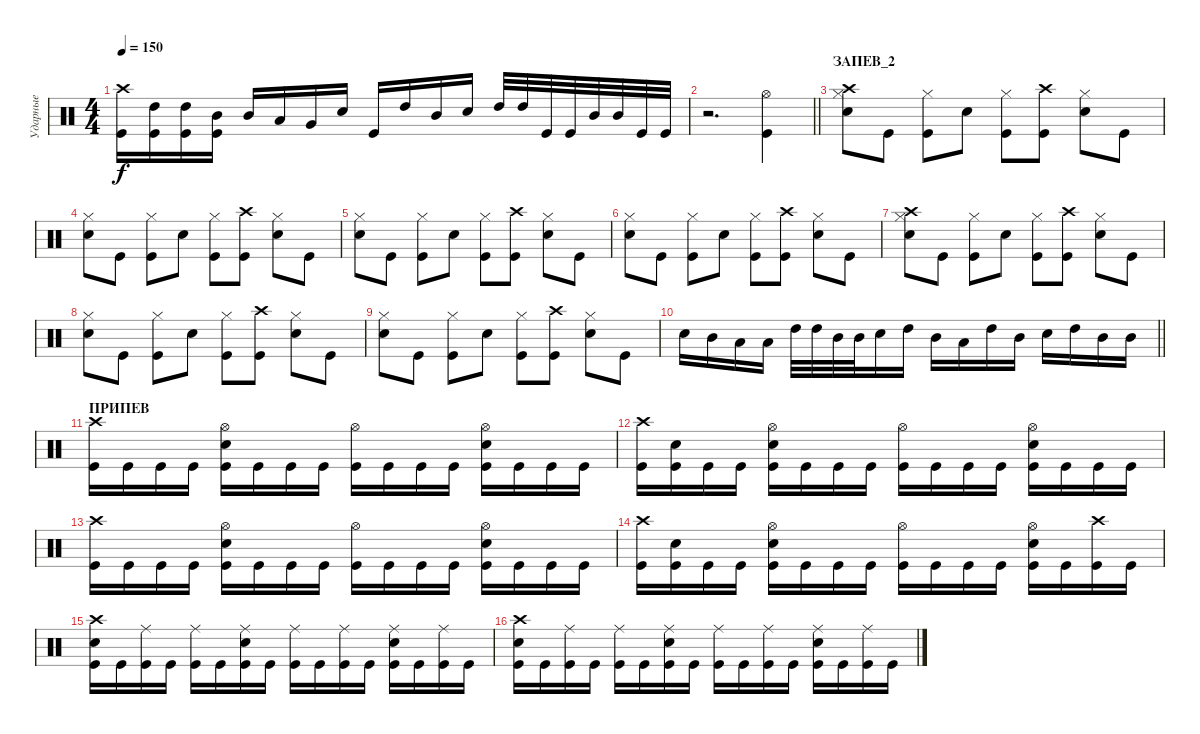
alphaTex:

\track ("Ударные" "Ударные") {instrument percussion}
\staff {score}
\articulation defaults
\ts (4 4)
\tempo 150
\clef neutral
\ks c
("Kick (hit)" "Crash high (hit)").16{dy f} ("Kick (hit)" "High Tom (hit)").16 ("Kick (hit)" "High Tom (hit)").16 ("Kick (hit)" "Mid Tom (hit)").16 "Mid Tom (hit)".16 "Low Tom (hit)".16 "Very Low Tom (hit)".16 "Snare (hit) 2".16 "Kick (hit)".16 "High Tom (hit)".16 "Mid Tom (hit)".16 "Snare (hit) 2".16 "High Tom (hit)".32 "High Tom (hit)".32 "Kick (hit)".32 "Kick (hit)".32 "Mid Tom (hit)".32 "Mid Tom (hit)".32 "Kick (hit)".32 "Kick (hit)".32 |
\barLineRight lightlight
r.2{d} ("Hi-Hat (open)" "Kick (hit)").4 |
\section ("" "ЗАПЕВ_2")
("Snare (hit) 2" "Hi-Hat (closed)" "Crash high (hit)").8 "Kick (hit)".8 ("Kick (hit)" "Hi-Hat (closed)").8 "Snare (hit) 2".8 ("Kick (hit)" "Hi-Hat (closed)").8 ("Kick (hit)" "Crash high (hit)").8 ("Snare (hit) 2" "Hi-Hat (closed)").8 "Kick (hit)".8 |
("Snare (hit) 2" "Hi-Hat (closed)").8 "Kick (hit)".8 ("Kick (hit)" "Hi-Hat (closed)").8 "Snare (hit) 2".8 ("Kick (hit)" "Hi-Hat (closed)").8 ("Kick (hit)" "Crash high (hit)").8 ("Snare (hit) 2" "Hi-Hat (closed)").8 "Kick (hit)".8 |
("Snare (hit) 2" "Hi-Hat (closed)").8 "Kick (hit)".8 ("Kick (hit)" "Hi-Hat (closed)").8 "Snare (hit) 2".8 ("Kick (hit)" "Hi-Hat (closed)").8 ("Kick (hit)" "Crash high (hit)").8 ("Snare (hit) 2" "Hi-Hat (closed)").8 "Kick (hit)".8 |
("Snare (hit) 2" "Hi-Hat (closed)").8 "Kick (hit)".8 ("Kick (hit)" "Hi-Hat (closed)").8 "Snare (hit) 2".8 ("Kick (hit)" "Hi-Hat (closed)").8 ("Kick (hit)" "Crash high (hit)").8 ("Snare (hit) 2" "Hi-Hat (closed)").8 "Kick (hit)".8 |
("Snare (hit) 2" "Hi-Hat (closed)" "Crash high (hit)").8 "Kick (hit)".8 ("Kick (hit)" "Hi-Hat (closed)").8 "Snare (hit) 2".8 ("Kick (hit)" "Hi-Hat (closed)").8 ("Kick (hit)" "Crash high (hit)").8 ("Snare (hit) 2" "Hi-Hat (closed)").8 "Kick (hit)".8 |
("Snare (hit) 2" "Hi-Hat (closed)").8 "Kick (hit)".8 ("Kick (hit)" "Hi-Hat (closed)").8 "Snare (hit) 2".8 ("Kick (hit)" "Hi-Hat (closed)").8 ("Kick (hit)" "Crash high (hit)").8 ("Snare (hit) 2" "Hi-Hat (closed)").8 "Kick (hit)".8 |
("Snare (hit) 2" "Hi-Hat (closed)").8 "Kick (hit)".8 ("Kick (hit)" "Hi-Hat (closed)").8 "Snare (hit) 2".8 ("Kick (hit)" "Hi-Hat (closed)").8 ("Kick (hit)" "Crash high (hit)").8 ("Snare (hit) 2" "Hi-Hat (closed)").8 "Kick (hit)".8 |
\barLineRight lightlight "Snare (hit) 2".16 "Mid Tom (hit)".16 "Low Tom (hit)".16 "Low Tom (hit)".16 "High Tom (hit)".32 "High Tom (hit)".32 "Mid Tom (hit)".32 "Mid Tom (hit)".32 "Snare (hit) 2".16 "High Tom (hit)".16 "Mid Tom (hit)".16 "Low Tom (hit)".16 "High Tom (hit)".16 "Mid Tom (hit)".16 "Snare (hit) 2".16 "High Tom (hit)".16 "Mid Tom (hit)".16 "Mid Tom (hit)".16
|
\section ("" "ПРИПЕВ")
("Kick (hit)" "Crash high (hit)").16 "Kick (hit)".16 "Kick (hit)".16 "Kick (hit)".16 ("Kick (hit)" "Hi-Hat (open)" "Snare (hit) 2").16 "Kick (hit)".16 "Kick (hit)".16 "Kick (hit)".16 ("Kick (hit)" "Hi-Hat (open)").16 "Kick (hit)".16 "Kick (hit)".16 "Kick (hit)".16 ("Kick (hit)" "Hi-Hat (open)" "Snare (hit) 2").16 "Kick (hit)".16 "Kick (hit)".16 "Kick (hit)".16 |
("Kick (hit)" "Crash high (hit)").16 ("Kick (hit)" "Snare (hit) 2").16 "Kick (hit)".16 "Kick (hit)".16 ("Kick (hit)" "Hi-Hat (open)" "Snare (hit) 2").16 "Kick (hit)".16 "Kick (hit)".16 "Kick (hit)".16 ("Kick (hit)" "Hi-Hat (open)").16 "Kick (hit)".16 "Kick (hit)".16 "Kick (hit)".16 ("Kick (hit)" "Hi-Hat (open)" "Snare (hit) 2").16 "Kick (hit)".16 "Kick (hit)".16 "Kick (hit)".16 |
("Kick (hit)" "Crash high (hit)").16 "Kick (hit)".16 "Kick (hit)".16 "Kick (hit)".16 ("Kick (hit)" "Hi-Hat (open)" "Snare (hit) 2").16 "Kick (hit)".16 "Kick (hit)".16 "Kick (hit)".16 ("Kick (hit)" "Hi-Hat (open)").16 "Kick (hit)".16 "Kick (hit)".16 "Kick (hit)".16 ("Kick (hit)" "Hi-Hat (open)" "Snare (hit) 2").16 "Kick (hit)".16 "Kick (hit)".16 "Kick (hit)".16 |
("Kick (hit)" "Crash high (hit)").16 ("Kick (hit)" "Snare (hit) 2").16 "Kick (hit)".16 "Kick (hit)".16 ("Kick (hit)" "Hi-Hat (open)" "Snare (hit) 2").16 "Kick (hit)".16 "Kick (hit)".16 "Kick (hit)".16 ("Kick (hit)" "Hi-Hat (open)").16 "Kick (hit)".16 "Kick (hit)".16 "Kick (hit)".16 ("Kick (hit)" "Hi-Hat (open)" "Snare (hit) 2").16 "Kick (hit)".16 ("Kick (hit)" "Crash high (hit)").16 "Kick (hit)".16 |
("Kick (hit)" "Crash high (hit)" "Snare (hit) 2").16 "Kick (hit)".16 ("Kick (hit)" "Ride (middle)").16 "Kick (hit)".16 ("Kick (hit)" "Ride (middle)").16 "Kick (hit)".16 ("Kick (hit)" "Snare (hit) 2" "Ride (middle)").16 "Kick (hit)".16 ("Kick (hit)" "Ride (middle)").16 "Kick (hit)".16 ("Kick (hit)" "Ride (middle)").16 "Kick (hit)".16 ("Kick (hit)" "Ride (middle)" "Snare (hit) 2").16 "Kick (hit)".16 ("Kick (hit)" "Ride (middle)").16 "Kick (hit)".16 |
("Kick (hit)" "Crash high (hit)" "Snare (hit) 2").16 "Kick (hit)".16 ("Kick (hit)" "Ride (middle)").16 "Kick (hit)".16 ("Kick (hit)" "Ride (middle)").16 "Kick (hit)".16 ("Kick (hit)" "Snare (hit) 2" "Ride (middle)").16 "Kick (hit)".16 ("Kick (hit)" "Ride (middle)").16 "Kick (hit)".16 ("Kick (hit)" "Ride (middle)").16 "Kick (hit)".16 ("Kick (hit)" "Ride (middle)" "Snare (hit) 2").16 "Kick (hit)".16 ("Kick (hit)" "Ride (middle)").16 "Kick (hit)".16
